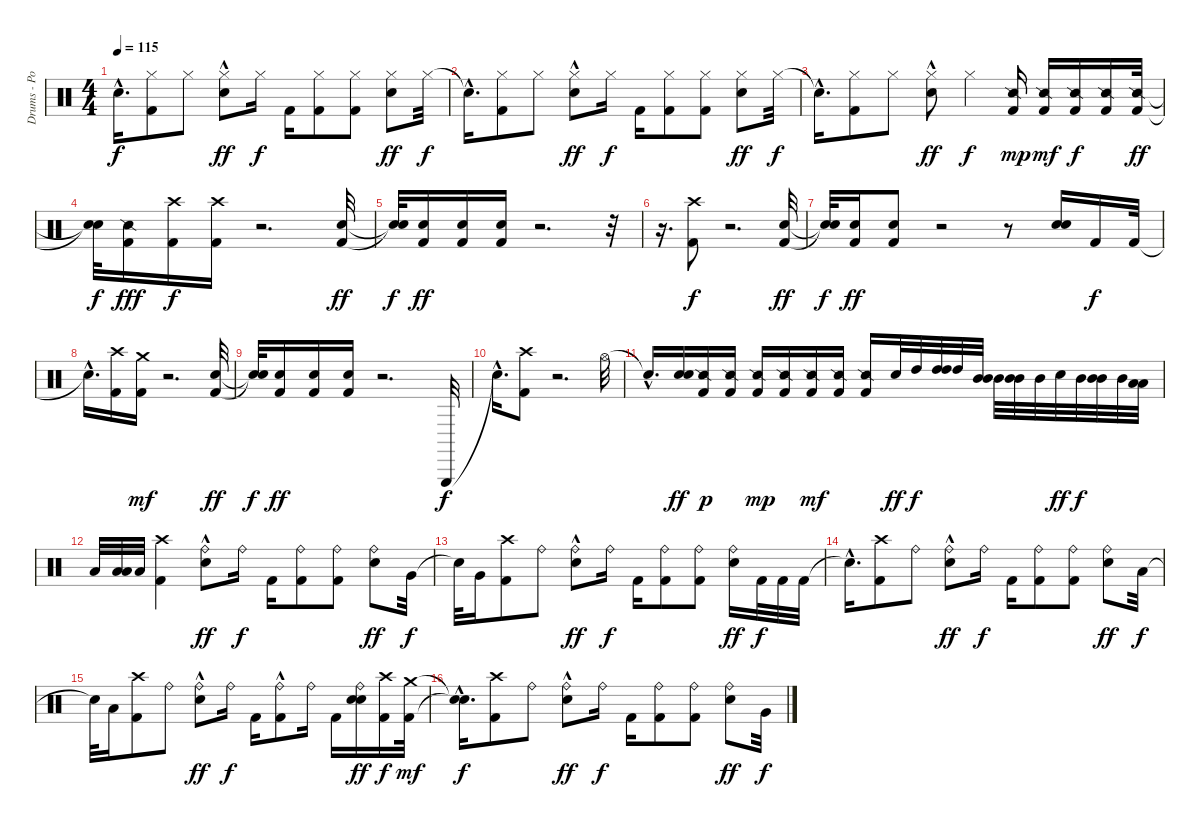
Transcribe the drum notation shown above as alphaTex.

\track ("Drums - Portnoy" "Drums - Po") {instrument percussion}
\staff {score}
\articulation defaults
\ts (4 4)
\tempo 115
\clef neutral
\ks c "Snare (hit)"{hac t}.16{d dy f}
("Kick (hit) 2" "Hi-Hat (closed)").8 "Hi-Hat (closed)".8 ("Hi-Hat (closed)" "Electric Snare (hit)"{hac}).8{dy ff} "Hi-Hat (closed)".16{dy f} "Kick (hit) 2".16 ("Kick (hit) 2" "Hi-Hat (closed)").8 ("Kick (hit) 2" "Hi-Hat (closed)").8 ("Hi-Hat (closed)" "Electric Snare (hit)").8{dy ff} "Hi-Hat (closed)".32{dy f} |
"Snare (hit)"{hac t}.16{d} ("Kick (hit) 2" "Hi-Hat (closed)").8 "Hi-Hat (closed)".8 ("Hi-Hat (closed)" "Electric Snare (hit)"{hac}).8{dy ff} "Hi-Hat (closed)".16{dy f} "Kick (hit) 2".16 ("Kick (hit) 2" "Hi-Hat (closed)").8 ("Kick (hit) 2" "Hi-Hat (closed)").8 ("Hi-Hat (closed)" "Electric Snare (hit)").8{dy ff} "Hi-Hat (closed)".32{dy f} |
"Snare (hit)"{hac t}.16{d} ("Kick (hit) 2" "Hi-Hat (closed)").8 "Hi-Hat (closed)".8 ("Hi-Hat (closed)" "Electric Snare (hit)"{hac}).8{dy ff} "Hi-Hat (closed)".4{dy f} ("Kick (hit) 2" "Snare (side stick) 2").16{dy mp} ("Kick (hit) 2" "Snare (side stick) 2").16{dy mf} ("Kick (hit) 2" "Snare (side stick) 2").16{dy f} ("Kick (hit) 2" "Snare (side stick) 2").16 ("Kick (hit) 2" "Snare (side stick) 2").32{dy ff} |
("Snare (hit)"{t} "Snare (hit)"{t}).32{dy f} ("Kick (hit) 2" "Snare (side stick) 2").16{dy fff} ("Crash high (hit)" "Kick (hit) 2").16{dy f} ("Crash high (hit)" "Kick (hit) 2").16 r.2{d} ("Kick (hit) 2" "Electric Snare (hit)").32{dy ff volume 12} |
("Snare (hit)"{t} "Snare (hit)"{t}).32{dy f} ("Kick (hit) 2" "Electric Snare (hit)").16{dy ff} ("Kick (hit) 2" "Electric Snare (hit)").16 ("Kick (hit) 2" "Electric Snare (hit)").16 r.2{d} r.32 |
r.16{d} ("Kick (hit) 2" "Crash high (hit)").8{dy f} r.2{d} ("Kick (hit) 2" "Electric Snare (hit)").32{dy ff volume 12} |
("Snare (hit)"{t} "Snare (hit)"{t}).32{dy f} ("Kick (hit) 2" "Electric Snare (hit)").16{dy ff} ("Kick (hit) 2" "Electric Snare (hit)").8 r.2 r.8 ("Electric Snare (hit)" "Electric Snare (hit)").16 "Kick (hit) 2".16{dy f} "Kick (hit) 2".32 |
"Snare (hit)"{hac t}.16{d} ("Kick (hit) 2" "Crash high (hit)").16 ("Kick (hit) 2" "Crash medium (hit)").16{dy mf} r.2{d} ("Kick (hit) 2" "Electric Snare (hit)").32{dy ff volume 12} |
("Snare (hit)"{t} "Snare (hit)"{t}).32{dy f} ("Kick (hit) 2" "Electric Snare (hit)").16{dy ff} ("Kick (hit) 2" "Electric Snare (hit)").16 ("Kick (hit) 2" "Electric Snare (hit)").16 r.2{d} "Triangle (hit)".32{dy f} |
"Snare (hit)"{hac t}.16{d} ("Kick (hit) 2" "Crash high (hit)").8 r.2{d} "Hi-Hat (open)".32 |
"Snare (hit)"{hac t}.16{d} ("Electric Snare (hit)" "Electric Snare (hit)").16{dy ff} ("Kick (hit) 2" "Snare (side stick) 2").16{dy p} ("Kick (hit) 2" "Snare (side stick) 2").16 ("Kick (hit) 2" "Snare (side stick) 2").16{dy mp} ("Kick (hit) 2" "Snare (side stick) 2").16 ("Kick (hit) 2" "Snare (side stick) 2").16{dy mf} ("Kick (hit) 2" "Snare (side stick) 2").16 ("Kick (hit) 2" "Snare (side stick) 2").16 "Electric Snare (hit)".32{dy ff} "High Tom (hit)".32{dy f} ("High Tom (hit)" "High Tom (hit)").32 "High Tom (hit)".32 ("Mid Tom (hit)" "Mid Tom (hit)").32 "Mid Tom (hit)".32 ("Mid Tom (hit)" "Mid Tom (hit)").32 "Mid Tom (hit)".32 "Electric Snare (hit)".32{dy ff} "Mid Tom (hit)".32{dy f} ("Mid Tom (hit)" "Mid Tom (hit)").32 "Mid Tom (hit)".32 ("Low Tom (hit)" "Low Tom (hit)").32 |
"Low Tom (hit)".32 ("Low Tom (hit)" "Low Tom (hit)").32 "Low Tom (hit)".32 ("Crash high (hit)" "Kick (hit) 2").4 ("Ride (bell)" "Electric Snare (hit)"{hac}).8{dy ff} "Ride (bell)".16{dy f} "Kick (hit) 2".16 ("Kick (hit) 2" "Ride (bell)").8 ("Kick (hit) 2" "Ride (bell)").8 ("Ride (bell)" "Electric Snare (hit)").8{dy ff} "Very Low Tom (hit)".32{dy f} |
"Snare (hit)"{t}.32 "Very Low Tom (hit)".16 ("Kick (hit) 2" "Crash high (hit)").8 "Ride (bell)".8 ("Ride (bell)" "Electric Snare (hit)"{hac}).8{dy ff} "Ride (bell)".16{dy f} "Kick (hit) 2".16 ("Kick (hit) 2" "Ride (bell)").8 ("Kick (hit) 2" "Ride (bell)").8 ("Ride (bell)" "Electric Snare (hit)").16{dy ff} "Kick (hit) 2".32{dy f} "Kick (hit) 2".32 "Kick (hit) 2".32 |
"Snare (hit)"{hac t}.16{d} ("Kick (hit) 2" "Crash high (hit)").8 "Ride (bell)".8 ("Ride (bell)" "Electric Snare (hit)"{hac}).8{dy ff} "Ride (bell)".16{dy f} "Kick (hit) 2".16 ("Kick (hit) 2" "Ride (bell)").8 ("Kick (hit) 2" "Ride (bell)").8 ("Ride (bell)" "Electric Snare (hit)").8{dy ff} "Low Floor Tom (hit)".32{dy f} |
"Snare (hit)"{t}.32 "Low Floor Tom (hit)".16 ("Crash high (hit)" "Kick (hit) 2").8 "Ride (bell)".8 ("Ride (bell)" "Electric Snare (hit)"{hac}).8{dy ff} "Ride (bell)".16{dy f} "Kick (hit) 2".16 ("Ride (bell)" "Kick (hit) 2"{hac}).8 "Ride (bell)".16 "Kick (hit) 2".16 ("Ride (bell)" "Electric Snare (hit)" "Electric Snare (hit)").16{dy ff} ("Crash high (hit)" "Kick (hit) 2").16{dy f} ("Kick (hit) 2" "Crash medium (hit)").32{dy mf} |
("Snare (hit)"{hac t} "Snare (hit)"{hac t}).16{d dy f} ("Kick (hit) 2" "Crash high (hit)").8 "Ride (bell)".8 ("Ride (bell)" "Electric Snare (hit)"{hac}).8{dy ff} "Ride (bell)".16{dy f} "Kick (hit) 2".16 ("Kick (hit) 2" "Ride (bell)").8 ("Kick (hit) 2" "Ride (bell)").8 ("Ride (bell)" "Electric Snare (hit)").8{dy ff} "Very Low Tom (hit)".32{dy f}
